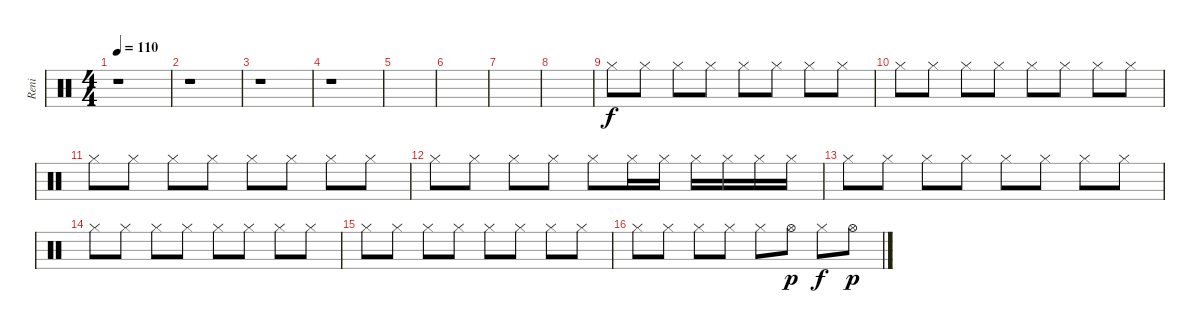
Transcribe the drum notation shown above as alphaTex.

\track ("Reni" "Reni") {instrument percussion}
\staff {score}
\articulation defaults
\ts (4 4)
\tempo 110
\clef neutral
\ks c
r.1{dy f volume 2} |
r.1 |
r.1 |
r.1 |
|
|
|
|
"Hi-Hat (closed)".8{volume 13} "Hi-Hat (closed)".8 "Hi-Hat (closed)".8 "Hi-Hat (closed)".8 "Hi-Hat (closed)".8 "Hi-Hat (closed)".8 "Hi-Hat (closed)".8 "Hi-Hat (closed)".8 |
"Hi-Hat (closed)".8 "Hi-Hat (closed)".8 "Hi-Hat (closed)".8 "Hi-Hat (closed)".8 "Hi-Hat (closed)".8 "Hi-Hat (closed)".8 "Hi-Hat (closed)".8 "Hi-Hat (closed)".8 |
"Hi-Hat (closed)".8 "Hi-Hat (closed)".8 "Hi-Hat (closed)".8 "Hi-Hat (closed)".8 "Hi-Hat (closed)".8 "Hi-Hat (closed)".8 "Hi-Hat (closed)".8 "Hi-Hat (closed)".8 |
"Hi-Hat (closed)".8 "Hi-Hat (closed)".8 "Hi-Hat (closed)".8 "Hi-Hat (closed)".8 "Hi-Hat (closed)".8 "Hi-Hat (closed)".16 "Hi-Hat (closed)".16 "Hi-Hat (closed)".16 "Hi-Hat (closed)".16 "Hi-Hat (closed)".16 "Hi-Hat (closed)".16 |
"Hi-Hat (closed)".8 "Hi-Hat (closed)".8 "Hi-Hat (closed)".8 "Hi-Hat (closed)".8 "Hi-Hat (closed)".8 "Hi-Hat (closed)".8 "Hi-Hat (closed)".8 "Hi-Hat (closed)".8 |
"Hi-Hat (closed)".8 "Hi-Hat (closed)".8 "Hi-Hat (closed)".8 "Hi-Hat (closed)".8 "Hi-Hat (closed)".8 "Hi-Hat (closed)".8 "Hi-Hat (closed)".8 "Hi-Hat (closed)".8 |
"Hi-Hat (closed)".8 "Hi-Hat (closed)".8 "Hi-Hat (closed)".8 "Hi-Hat (closed)".8 "Hi-Hat (closed)".8 "Hi-Hat (closed)".8 "Hi-Hat (closed)".8 "Hi-Hat (closed)".8 |
"Hi-Hat (closed)".8 "Hi-Hat (closed)".8 "Hi-Hat (closed)".8 "Hi-Hat (closed)".8 "Hi-Hat (closed)".8 "Hi-Hat (open)".8{dy p} "Hi-Hat (closed)".8{dy f} "Hi-Hat (open)".8{dy p}
